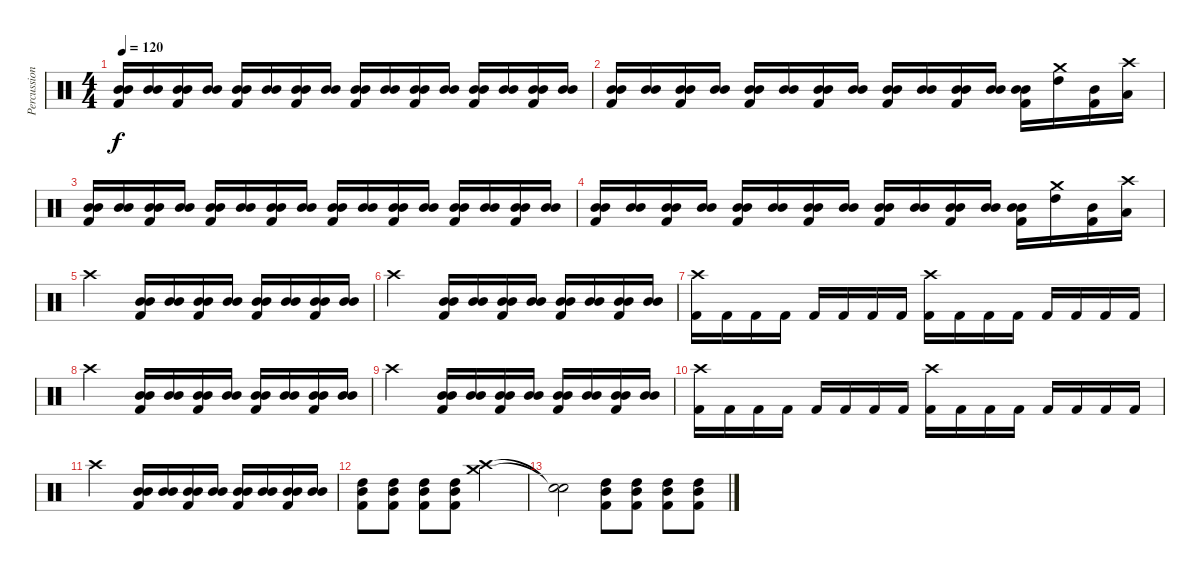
\track ("Percussion" "Percussion") {instrument percussion}
\staff {score}
\articulation defaults
\ts (4 4)
\tempo 120
\clef neutral
\ks c
("Mid Tom (hit)" "Mid Tom (hit)" "Kick (hit) 2").16{dy f} ("Mid Tom (hit)" "Mid Tom (hit)").16 ("Mid Tom (hit)" "Mid Tom (hit)" "Kick (hit) 2").16 ("Mid Tom (hit)" "Mid Tom (hit)").16 ("Mid Tom (hit)" "Mid Tom (hit)" "Kick (hit) 2").16 ("Mid Tom (hit)" "Mid Tom (hit)").16 ("Mid Tom (hit)" "Mid Tom (hit)" "Kick (hit) 2").16 ("Mid Tom (hit)" "Mid Tom (hit)").16 ("Mid Tom (hit)" "Mid Tom (hit)" "Kick (hit) 2").16 ("Mid Tom (hit)" "Mid Tom (hit)").16 ("Mid Tom (hit)" "Mid Tom (hit)" "Kick (hit) 2").16 ("Mid Tom (hit)" "Mid Tom (hit)").16 ("Mid Tom (hit)" "Mid Tom (hit)" "Kick (hit) 2").16 ("Mid Tom (hit)" "Mid Tom (hit)").16 ("Mid Tom (hit)" "Mid Tom (hit)" "Kick (hit) 2").16 ("Mid Tom (hit)" "Mid Tom (hit)").16 |
("Mid Tom (hit)" "Mid Tom (hit)" "Kick (hit) 2").16 ("Mid Tom (hit)" "Mid Tom (hit)").16 ("Mid Tom (hit)" "Mid Tom (hit)" "Kick (hit) 2").16 ("Mid Tom (hit)" "Mid Tom (hit)").16 ("Mid Tom (hit)" "Mid Tom (hit)" "Kick (hit) 2").16 ("Mid Tom (hit)" "Mid Tom (hit)").16 ("Mid Tom (hit)" "Mid Tom (hit)" "Kick (hit) 2").16 ("Mid Tom (hit)" "Mid Tom (hit)").16 ("Mid Tom (hit)" "Mid Tom (hit)" "Kick (hit) 2").16 ("Mid Tom (hit)" "Mid Tom (hit)").16 ("Mid Tom (hit)" "Mid Tom (hit)" "Kick (hit) 2").16 ("Mid Tom (hit)" "Mid Tom (hit)").16 ("Mid Tom (hit)" "Mid Tom (hit)" "Kick (hit) 2").16 ("Crash medium (hit)" "High Tom (hit)").16 ("Mid Tom (hit)" "Kick (hit) 2").16 ("Crash high (hit)" "Low Tom (hit)").16 |
("Mid Tom (hit)" "Mid Tom (hit)" "Kick (hit) 2").16 ("Mid Tom (hit)" "Mid Tom (hit)").16 ("Mid Tom (hit)" "Mid Tom (hit)" "Kick (hit) 2").16 ("Mid Tom (hit)" "Mid Tom (hit)").16 ("Mid Tom (hit)" "Mid Tom (hit)" "Kick (hit) 2").16 ("Mid Tom (hit)" "Mid Tom (hit)").16 ("Mid Tom (hit)" "Mid Tom (hit)" "Kick (hit) 2").16 ("Mid Tom (hit)" "Mid Tom (hit)").16 ("Mid Tom (hit)" "Mid Tom (hit)" "Kick (hit) 2").16 ("Mid Tom (hit)" "Mid Tom (hit)").16 ("Mid Tom (hit)" "Mid Tom (hit)" "Kick (hit) 2").16 ("Mid Tom (hit)" "Mid Tom (hit)").16 ("Mid Tom (hit)" "Mid Tom (hit)" "Kick (hit) 2").16 ("Mid Tom (hit)" "Mid Tom (hit)").16 ("Mid Tom (hit)" "Mid Tom (hit)" "Kick (hit) 2").16 ("Mid Tom (hit)" "Mid Tom (hit)").16 |
("Mid Tom (hit)" "Mid Tom (hit)" "Kick (hit) 2").16 ("Mid Tom (hit)" "Mid Tom (hit)").16 ("Mid Tom (hit)" "Mid Tom (hit)" "Kick (hit) 2").16 ("Mid Tom (hit)" "Mid Tom (hit)").16 ("Mid Tom (hit)" "Mid Tom (hit)" "Kick (hit) 2").16 ("Mid Tom (hit)" "Mid Tom (hit)").16 ("Mid Tom (hit)" "Mid Tom (hit)" "Kick (hit) 2").16 ("Mid Tom (hit)" "Mid Tom (hit)").16 ("Mid Tom (hit)" "Mid Tom (hit)" "Kick (hit) 2").16 ("Mid Tom (hit)" "Mid Tom (hit)").16 ("Mid Tom (hit)" "Mid Tom (hit)" "Kick (hit) 2").16 ("Mid Tom (hit)" "Mid Tom (hit)").16 ("Mid Tom (hit)" "Mid Tom (hit)" "Kick (hit) 2").16 ("Crash medium (hit)" "High Tom (hit)").16 ("Mid Tom (hit)" "Kick (hit) 2").16 ("Crash high (hit)" "Low Tom (hit)").16 |
"Crash high (hit)".2 ("Mid Tom (hit)" "Mid Tom (hit)" "Kick (hit) 2").16 ("Mid Tom (hit)" "Mid Tom (hit)").16 ("Mid Tom (hit)" "Mid Tom (hit)" "Kick (hit) 2").16 ("Mid Tom (hit)" "Mid Tom (hit)").16 ("Mid Tom (hit)" "Mid Tom (hit)" "Kick (hit) 2").16 ("Mid Tom (hit)" "Mid Tom (hit)").16 ("Mid Tom (hit)" "Mid Tom (hit)" "Kick (hit) 2").16 ("Mid Tom (hit)" "Mid Tom (hit)").16 |
"Crash high (hit)".2 ("Mid Tom (hit)" "Mid Tom (hit)" "Kick (hit) 2").16 ("Mid Tom (hit)" "Mid Tom (hit)").16 ("Mid Tom (hit)" "Mid Tom (hit)" "Kick (hit) 2").16 ("Mid Tom (hit)" "Mid Tom (hit)").16 ("Mid Tom (hit)" "Mid Tom (hit)" "Kick (hit) 2").16 ("Mid Tom (hit)" "Mid Tom (hit)").16 ("Mid Tom (hit)" "Mid Tom (hit)" "Kick (hit) 2").16 ("Mid Tom (hit)" "Mid Tom (hit)").16 |
("Crash high (hit)" "Kick (hit) 2").16 "Kick (hit) 2".16 "Kick (hit) 2".16 "Kick (hit) 2".16 "Kick (hit) 2".16 "Kick (hit) 2".16 "Kick (hit) 2".16 "Kick (hit) 2".16 ("Crash high (hit)" "Kick (hit) 2").16 "Kick (hit) 2".16 "Kick (hit) 2".16 "Kick (hit) 2".16 "Kick (hit) 2".16 "Kick (hit) 2".16 "Kick (hit) 2".16 "Kick (hit) 2".16 |
"Crash high (hit)".2 ("Mid Tom (hit)" "Mid Tom (hit)" "Kick (hit) 2").16 ("Mid Tom (hit)" "Mid Tom (hit)").16 ("Mid Tom (hit)" "Mid Tom (hit)" "Kick (hit) 2").16 ("Mid Tom (hit)" "Mid Tom (hit)").16 ("Mid Tom (hit)" "Mid Tom (hit)" "Kick (hit) 2").16 ("Mid Tom (hit)" "Mid Tom (hit)").16 ("Mid Tom (hit)" "Mid Tom (hit)" "Kick (hit) 2").16 ("Mid Tom (hit)" "Mid Tom (hit)").16 |
"Crash high (hit)".2 ("Mid Tom (hit)" "Mid Tom (hit)" "Kick (hit) 2").16 ("Mid Tom (hit)" "Mid Tom (hit)").16 ("Mid Tom (hit)" "Mid Tom (hit)" "Kick (hit) 2").16 ("Mid Tom (hit)" "Mid Tom (hit)").16 ("Mid Tom (hit)" "Mid Tom (hit)" "Kick (hit) 2").16 ("Mid Tom (hit)" "Mid Tom (hit)").16 ("Mid Tom (hit)" "Mid Tom (hit)" "Kick (hit) 2").16 ("Mid Tom (hit)" "Mid Tom (hit)").16 |
("Crash high (hit)" "Kick (hit) 2").16 "Kick (hit) 2".16 "Kick (hit) 2".16 "Kick (hit) 2".16 "Kick (hit) 2".16 "Kick (hit) 2".16 "Kick (hit) 2".16 "Kick (hit) 2".16 ("Crash high (hit)" "Kick (hit) 2").16 "Kick (hit) 2".16 "Kick (hit) 2".16 "Kick (hit) 2".16 "Kick (hit) 2".16 "Kick (hit) 2".16 "Kick (hit) 2".16 "Kick (hit) 2".16 |
"Crash high (hit)".2 ("Mid Tom (hit)" "Mid Tom (hit)" "Kick (hit) 2").16 ("Mid Tom (hit)" "Mid Tom (hit)").16 ("Mid Tom (hit)" "Mid Tom (hit)" "Kick (hit) 2").16 ("Mid Tom (hit)" "Mid Tom (hit)").16 ("Mid Tom (hit)" "Mid Tom (hit)" "Kick (hit) 2").16 ("Mid Tom (hit)" "Mid Tom (hit)").16 ("Mid Tom (hit)" "Mid Tom (hit)" "Kick (hit) 2").16 ("Mid Tom (hit)" "Mid Tom (hit)").16 |
("High Tom (hit)" "Mid Tom (hit)" "Kick (hit) 2").8 ("High Tom (hit)" "Mid Tom (hit)" "Kick (hit) 2").8 ("High Tom (hit)" "Mid Tom (hit)" "Kick (hit) 2").8 ("High Tom (hit)" "Mid Tom (hit)" "Kick (hit) 2").8 ("Crash high (hit)" "Crash medium (hit)").2 |
("Snare (hit)"{t} "Snare (hit)"{t}).2 ("High Tom (hit)" "Mid Tom (hit)" "Kick (hit) 2").8 ("High Tom (hit)" "Mid Tom (hit)" "Kick (hit) 2").8 ("High Tom (hit)" "Mid Tom (hit)" "Kick (hit) 2").8 ("High Tom (hit)" "Mid Tom (hit)" "Kick (hit) 2").8
